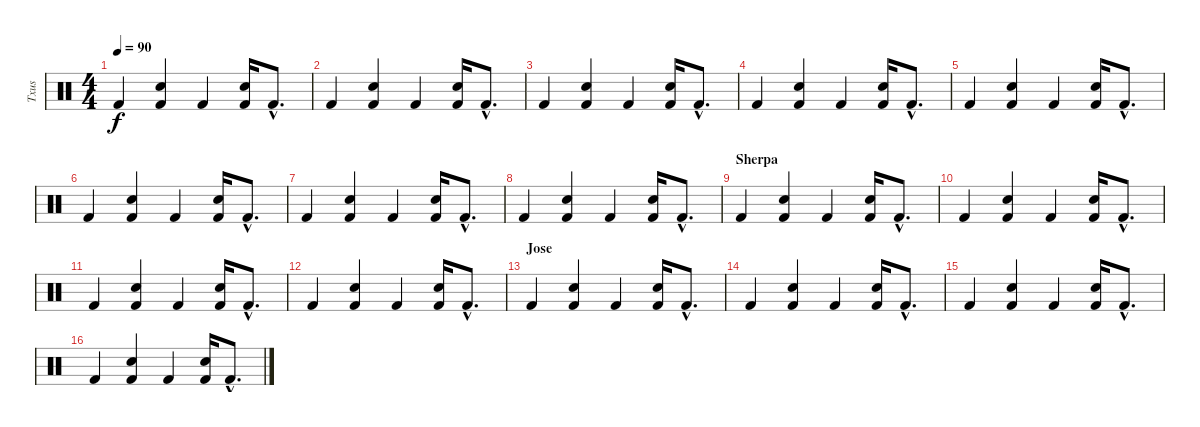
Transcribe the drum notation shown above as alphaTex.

\track ("Txus" "Txus") {instrument percussion}
\staff {score}
\articulation defaults
\ts (4 4)
\tempo 90
\clef neutral
\ks c "Kick (hit) 2".4{dy f}
("Kick (hit) 2" "Electric Snare (hit)").4 "Kick (hit) 2".4 ("Kick (hit) 2" "Electric Snare (hit)").16 "Kick (hit) 2"{hac}.8{d} |
"Kick (hit) 2".4 ("Kick (hit) 2" "Electric Snare (hit)").4 "Kick (hit) 2".4 ("Kick (hit) 2" "Electric Snare (hit)").16 "Kick (hit) 2"{hac}.8{d} |
"Kick (hit) 2".4 ("Kick (hit) 2" "Electric Snare (hit)").4 "Kick (hit) 2".4 ("Kick (hit) 2" "Electric Snare (hit)").16 "Kick (hit) 2"{hac}.8{d} |
"Kick (hit) 2".4 ("Kick (hit) 2" "Electric Snare (hit)").4 "Kick (hit) 2".4 ("Kick (hit) 2" "Electric Snare (hit)").16 "Kick (hit) 2"{hac}.8{d} |
"Kick (hit) 2".4 ("Kick (hit) 2" "Electric Snare (hit)").4 "Kick (hit) 2".4 ("Kick (hit) 2" "Electric Snare (hit)").16 "Kick (hit) 2"{hac}.8{d} |
"Kick (hit) 2".4 ("Kick (hit) 2" "Electric Snare (hit)").4 "Kick (hit) 2".4 ("Kick (hit) 2" "Electric Snare (hit)").16 "Kick (hit) 2"{hac}.8{d} |
"Kick (hit) 2".4 ("Kick (hit) 2" "Electric Snare (hit)").4 "Kick (hit) 2".4 ("Kick (hit) 2" "Electric Snare (hit)").16 "Kick (hit) 2"{hac}.8{d} |
"Kick (hit) 2".4 ("Kick (hit) 2" "Electric Snare (hit)").4 "Kick (hit) 2".4 ("Kick (hit) 2" "Electric Snare (hit)").16 "Kick (hit) 2"{hac}.8{d} |
\section ("" "Sherpa")
"Kick (hit) 2".4 ("Kick (hit) 2" "Electric Snare (hit)").4 "Kick (hit) 2".4 ("Kick (hit) 2" "Electric Snare (hit)").16 "Kick (hit) 2"{hac}.8{d} |
"Kick (hit) 2".4 ("Kick (hit) 2" "Electric Snare (hit)").4 "Kick (hit) 2".4 ("Kick (hit) 2" "Electric Snare (hit)").16 "Kick (hit) 2"{hac}.8{d} |
"Kick (hit) 2".4 ("Kick (hit) 2" "Electric Snare (hit)").4 "Kick (hit) 2".4 ("Kick (hit) 2" "Electric Snare (hit)").16 "Kick (hit) 2"{hac}.8{d} |
"Kick (hit) 2".4 ("Kick (hit) 2" "Electric Snare (hit)").4 "Kick (hit) 2".4 ("Kick (hit) 2" "Electric Snare (hit)").16 "Kick (hit) 2"{hac}.8{d} |
\section ("" "Jose")
"Kick (hit) 2".4 ("Kick (hit) 2" "Electric Snare (hit)").4 "Kick (hit) 2".4 ("Kick (hit) 2" "Electric Snare (hit)").16 "Kick (hit) 2"{hac}.8{d} |
"Kick (hit) 2".4 ("Kick (hit) 2" "Electric Snare (hit)").4 "Kick (hit) 2".4 ("Kick (hit) 2" "Electric Snare (hit)").16 "Kick (hit) 2"{hac}.8{d} |
"Kick (hit) 2".4 ("Kick (hit) 2" "Electric Snare (hit)").4 "Kick (hit) 2".4 ("Kick (hit) 2" "Electric Snare (hit)").16 "Kick (hit) 2"{hac}.8{d} |
"Kick (hit) 2".4 ("Kick (hit) 2" "Electric Snare (hit)").4 "Kick (hit) 2".4 ("Kick (hit) 2" "Electric Snare (hit)").16 "Kick (hit) 2"{hac}.8{d}
